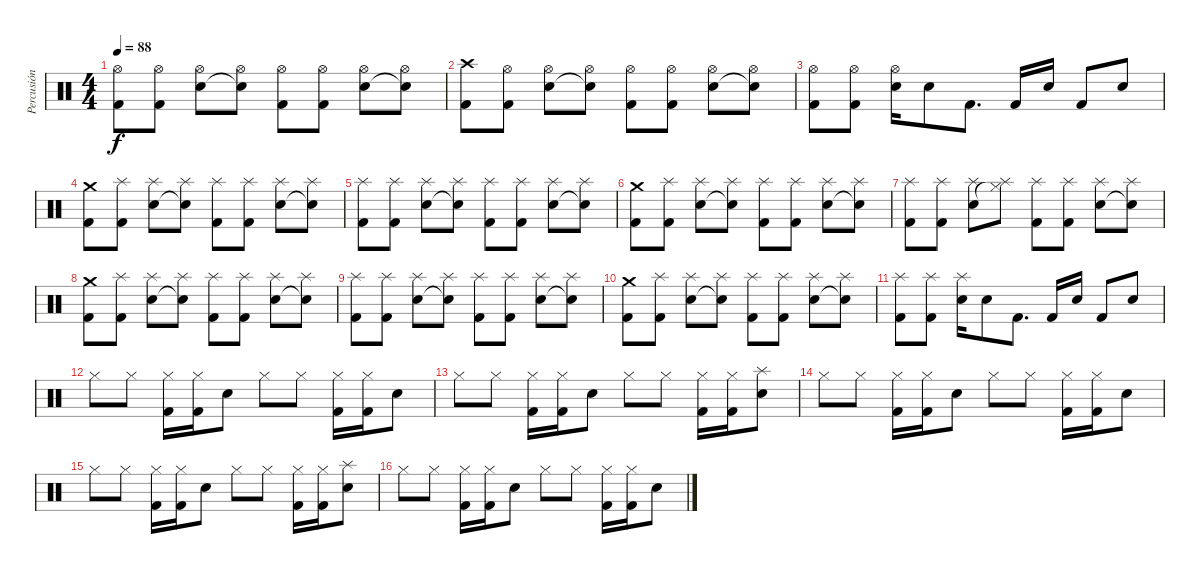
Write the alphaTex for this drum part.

\track ("Percusión" "Percusión") {instrument percussion}
\staff {score}
\articulation defaults
\ts (4 4)
\tempo 88
\clef neutral
\ks c
("Hi-Hat (open)" "Kick (hit) 2").8{dy f} ("Hi-Hat (open)" "Kick (hit) 2").8 ("Hi-Hat (open)" "Snare (hit) 2").8 ("Hi-Hat (open)" "Snare (hit)"{t}).8 ("Hi-Hat (open)" "Kick (hit) 2").8 ("Hi-Hat (open)" "Kick (hit) 2").8 ("Hi-Hat (open)" "Snare (hit) 2").8 ("Hi-Hat (open)" "Snare (hit)"{t}).8 |
("Crash high (hit)" "Kick (hit) 2").8 ("Hi-Hat (open)" "Kick (hit) 2").8 ("Hi-Hat (open)" "Snare (hit) 2").8 ("Hi-Hat (open)" "Snare (hit)"{t}).8 ("Hi-Hat (open)" "Kick (hit) 2").8 ("Hi-Hat (open)" "Kick (hit) 2").8 ("Hi-Hat (open)" "Snare (hit) 2").8 ("Hi-Hat (open)" "Snare (hit)"{t}).8 |
("Hi-Hat (open)" "Kick (hit) 2").8 ("Hi-Hat (open)" "Kick (hit) 2").8 ("Hi-Hat (open)" "Snare (hit) 2").16 "Snare (hit) 2".8 "Kick (hit) 2".8{d} "Kick (hit) 2".16 "Snare (hit) 2".16 "Kick (hit) 2".8 "Snare (hit) 2".8 |
("Crash medium (hit)" "Kick (hit) 2").8 ("Splash (hit)" "Kick (hit) 2").8 ("Splash (hit)" "Snare (hit) 2").8 ("Splash (hit)" "Snare (hit)"{t}).8 ("Splash (hit)" "Kick (hit) 2").8 ("Splash (hit)" "Kick (hit) 2").8 ("Splash (hit)" "Snare (hit) 2").8 ("Splash (hit)" "Snare (hit)"{t}).8 |
("Splash (hit)" "Kick (hit) 2").8 ("Splash (hit)" "Kick (hit) 2").8 ("Splash (hit)" "Snare (hit) 2").8 ("Splash (hit)" "Snare (hit)"{t}).8 ("Splash (hit)" "Kick (hit) 2").8 ("Splash (hit)" "Kick (hit) 2").8 ("Splash (hit)" "Snare (hit) 2").8 ("Splash (hit)" "Snare (hit)"{t}).8 |
("Crash medium (hit)" "Kick (hit) 2").8 ("Splash (hit)" "Kick (hit) 2").8 ("Splash (hit)" "Snare (hit) 2").8 ("Splash (hit)" "Snare (hit)"{t}).8 ("Splash (hit)" "Kick (hit) 2").8 ("Splash (hit)" "Kick (hit) 2").8 ("Splash (hit)" "Snare (hit) 2").8 ("Splash (hit)" "Snare (hit)"{t}).8 |
("Splash (hit)" "Kick (hit) 2").8 ("Splash (hit)" "Kick (hit) 2").8 ("Splash (hit)" "Snare (hit) 2").8 ("Splash (hit)" "Hi-Hat (closed)"{t}).8 ("Splash (hit)" "Kick (hit) 2").8 ("Splash (hit)" "Kick (hit) 2").8 ("Splash (hit)" "Snare (hit) 2").8 ("Splash (hit)" "Snare (hit)"{t}).8 |
("Crash medium (hit)" "Kick (hit) 2").8 ("Splash (hit)" "Kick (hit) 2").8 ("Splash (hit)" "Snare (hit) 2").8 ("Splash (hit)" "Snare (hit)"{t}).8 ("Splash (hit)" "Kick (hit) 2").8 ("Splash (hit)" "Kick (hit) 2").8 ("Splash (hit)" "Snare (hit) 2").8 ("Splash (hit)" "Snare (hit)"{t}).8 |
("Splash (hit)" "Kick (hit) 2").8 ("Splash (hit)" "Kick (hit) 2").8 ("Splash (hit)" "Snare (hit) 2").8 ("Splash (hit)" "Snare (hit)"{t}).8 ("Splash (hit)" "Kick (hit) 2").8 ("Splash (hit)" "Kick (hit) 2").8 ("Splash (hit)" "Snare (hit) 2").8 ("Splash (hit)" "Snare (hit)"{t}).8 |
("Crash medium (hit)" "Kick (hit) 2").8 ("Splash (hit)" "Kick (hit) 2").8 ("Splash (hit)" "Snare (hit) 2").8 ("Splash (hit)" "Snare (hit)"{t}).8 ("Splash (hit)" "Kick (hit) 2").8 ("Splash (hit)" "Kick (hit) 2").8 ("Splash (hit)" "Snare (hit) 2").8 ("Splash (hit)" "Snare (hit)"{t}).8 |
("Splash (hit)" "Kick (hit) 2").8 ("Splash (hit)" "Kick (hit) 2").8 ("Splash (hit)" "Snare (hit) 2").16 "Snare (hit) 2".8 "Kick (hit) 2".8{d} "Kick (hit) 2".16 "Snare (hit) 2".16 "Kick (hit) 2".8 "Snare (hit) 2".8 |
"Hi-Hat (closed)".8 "Hi-Hat (closed)".8 ("Hi-Hat (closed)" "Kick (hit) 2").16 ("Hi-Hat (closed)" "Kick (hit) 2").16 "Snare (hit) 2".8 "Hi-Hat (closed)".8 "Hi-Hat (closed)".8 ("Hi-Hat (closed)" "Kick (hit) 2").16 ("Hi-Hat (closed)" "Kick (hit) 2").16 "Snare (hit) 2".8 |
"Hi-Hat (closed)".8 "Hi-Hat (closed)".8 ("Hi-Hat (closed)" "Kick (hit) 2").16 ("Hi-Hat (closed)" "Kick (hit) 2").16 "Snare (hit) 2".8 "Hi-Hat (closed)".8 "Hi-Hat (closed)".8 ("Hi-Hat (closed)" "Kick (hit) 2").16 ("Hi-Hat (closed)" "Kick (hit) 2").16 ("Splash (hit)" "Snare (hit) 2").8 |
"Hi-Hat (closed)".8 "Hi-Hat (closed)".8 ("Hi-Hat (closed)" "Kick (hit) 2").16 ("Hi-Hat (closed)" "Kick (hit) 2").16 "Snare (hit) 2".8 "Hi-Hat (closed)".8 "Hi-Hat (closed)".8 ("Hi-Hat (closed)" "Kick (hit) 2").16 ("Hi-Hat (closed)" "Kick (hit) 2").16 "Snare (hit) 2".8 |
"Hi-Hat (closed)".8 "Hi-Hat (closed)".8 ("Hi-Hat (closed)" "Kick (hit) 2").16 ("Hi-Hat (closed)" "Kick (hit) 2").16 "Snare (hit) 2".8 "Hi-Hat (closed)".8 "Hi-Hat (closed)".8 ("Hi-Hat (closed)" "Kick (hit) 2").16 ("Hi-Hat (closed)" "Kick (hit) 2").16 ("Splash (hit)" "Snare (hit) 2").8 |
"Hi-Hat (closed)".8 "Hi-Hat (closed)".8 ("Hi-Hat (closed)" "Kick (hit) 2").16 ("Hi-Hat (closed)" "Kick (hit) 2").16 "Snare (hit) 2".8 "Hi-Hat (closed)".8 "Hi-Hat (closed)".8 ("Hi-Hat (closed)" "Kick (hit) 2").16 ("Hi-Hat (closed)" "Kick (hit) 2").16 "Snare (hit) 2".8
